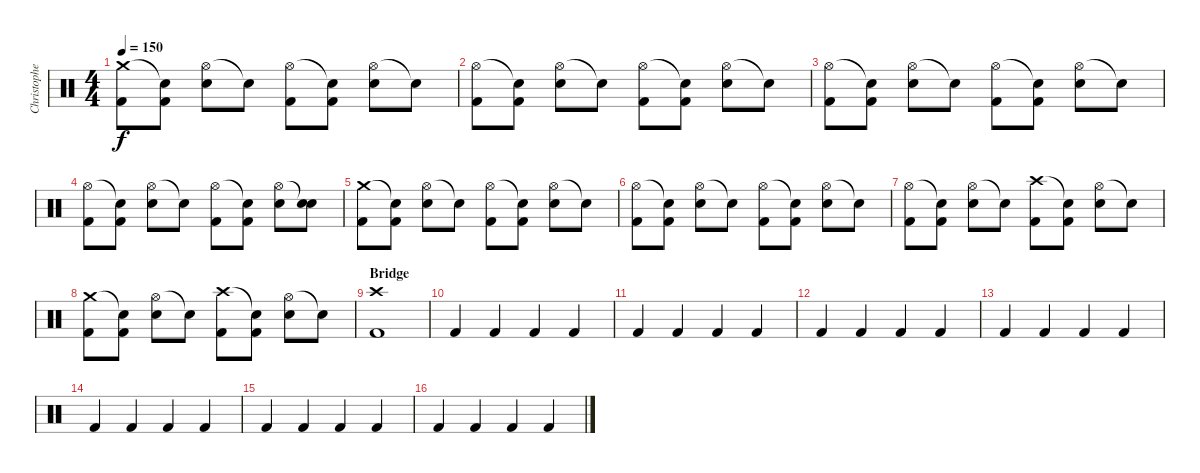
\track ("Christopher Schneider" "Christophe") {instrument percussion}
\staff {score}
\articulation defaults
\ts (4 4)
\tempo 150
\clef neutral
\ks c
("Crash medium (hit)" "Kick (hit) 2").8{dy f} ("Snare (hit)"{t} "Kick (hit) 2").8 ("Hi-Hat (open)" "Electric Snare (hit)").8 "Snare (hit)"{t}.8 ("Hi-Hat (open)" "Kick (hit) 2").8 ("Snare (hit)"{t} "Kick (hit) 2").8 ("Hi-Hat (open)" "Electric Snare (hit)").8 "Snare (hit)"{t}.8 |
("Hi-Hat (open)" "Kick (hit) 2").8 ("Snare (hit)"{t} "Kick (hit) 2").8 ("Hi-Hat (open)" "Electric Snare (hit)").8 "Snare (hit)"{t}.8 ("Hi-Hat (open)" "Kick (hit) 2").8 ("Snare (hit)"{t} "Kick (hit) 2").8 ("Hi-Hat (open)" "Electric Snare (hit)").8 "Snare (hit)"{t}.8 |
("Hi-Hat (open)" "Kick (hit) 2").8 ("Snare (hit)"{t} "Kick (hit) 2").8 ("Hi-Hat (open)" "Electric Snare (hit)").8 "Snare (hit)"{t}.8 ("Hi-Hat (open)" "Kick (hit) 2").8 ("Snare (hit)"{t} "Kick (hit) 2").8 ("Hi-Hat (open)" "Electric Snare (hit)").8 "Snare (hit)"{t}.8 |
("Hi-Hat (open)" "Kick (hit) 2").8 ("Snare (hit)"{t} "Kick (hit) 2").8 ("Hi-Hat (open)" "Electric Snare (hit)").8 "Snare (hit)"{t}.8 ("Hi-Hat (open)" "Kick (hit) 2").8 ("Snare (hit)"{t} "Kick (hit) 2").8 ("Hi-Hat (open)" "Electric Snare (hit)").8 ("Snare (hit)"{t} "Electric Snare (hit)").8 |
("Crash medium (hit)" "Kick (hit) 2").8 ("Snare (hit)"{t} "Kick (hit) 2").8 ("Hi-Hat (open)" "Electric Snare (hit)").8 "Snare (hit)"{t}.8 ("Hi-Hat (open)" "Kick (hit) 2").8 ("Snare (hit)"{t} "Kick (hit) 2").8 ("Hi-Hat (open)" "Electric Snare (hit)").8 "Snare (hit)"{t}.8 |
("Hi-Hat (open)" "Kick (hit) 2").8 ("Snare (hit)"{t} "Kick (hit) 2").8 ("Hi-Hat (open)" "Electric Snare (hit)").8 "Snare (hit)"{t}.8 ("Hi-Hat (open)" "Kick (hit) 2").8 ("Snare (hit)"{t} "Kick (hit) 2").8 ("Hi-Hat (open)" "Electric Snare (hit)").8 "Snare (hit)"{t}.8 |
("Hi-Hat (open)" "Kick (hit) 2").8 ("Snare (hit)"{t} "Kick (hit) 2").8 ("Hi-Hat (open)" "Electric Snare (hit)").8 "Snare (hit)"{t}.8 ("Crash high (hit)" "Kick (hit) 2").8 ("Snare (hit)"{t} "Kick (hit) 2").8 ("Hi-Hat (open)" "Electric Snare (hit)").8 "Snare (hit)"{t}.8 |
("Crash medium (hit)" "Kick (hit) 2").8 ("Snare (hit)"{t} "Kick (hit) 2").8 ("Hi-Hat (open)" "Electric Snare (hit)").8 "Snare (hit)"{t}.8 ("Crash high (hit)" "Kick (hit) 2").8 ("Snare (hit)"{t} "Kick (hit) 2").8 ("Hi-Hat (open)" "Electric Snare (hit)").8 "Snare (hit)"{t}.8 |
\section ("" "Bridge")
("Crash high (hit)" "Kick (hit) 2").1{volume 16} |
"Kick (hit) 2".4 "Kick (hit) 2".4 "Kick (hit) 2".4 "Kick (hit) 2".4 |
"Kick (hit) 2".4 "Kick (hit) 2".4 "Kick (hit) 2".4 "Kick (hit) 2".4 |
"Kick (hit) 2".4 "Kick (hit) 2".4 "Kick (hit) 2".4 "Kick (hit) 2".4 |
"Kick (hit) 2".4 "Kick (hit) 2".4 "Kick (hit) 2".4 "Kick (hit) 2".4 |
"Kick (hit) 2".4 "Kick (hit) 2".4 "Kick (hit) 2".4 "Kick (hit) 2".4 |
"Kick (hit) 2".4 "Kick (hit) 2".4 "Kick (hit) 2".4 "Kick (hit) 2".4 |
"Kick (hit) 2".4 "Kick (hit) 2".4 "Kick (hit) 2".4 "Kick (hit) 2".4
